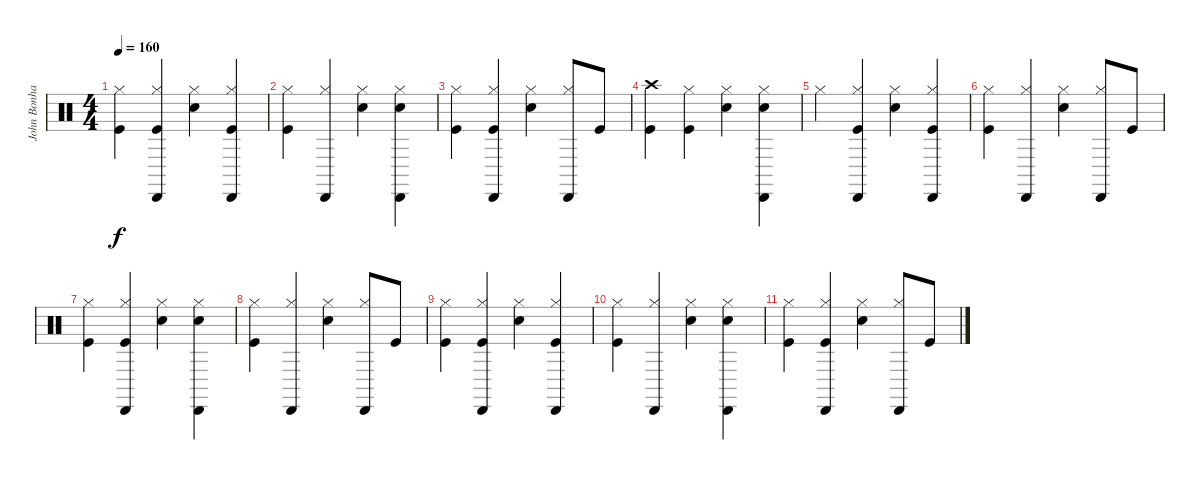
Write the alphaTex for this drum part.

\track ("John Bonham - Drums" "John Bonha") {instrument percussion}
\staff {score}
\articulation defaults
\ts (4 4)
\tempo 160
\clef neutral
\ks c
("Hi-Hat (closed)" "Kick (hit)").4{dy f} ("Hi-Hat (closed)" "Kick (hit)" "Cabasa (hit)").4 ("Hi-Hat (closed)" "Snare (hit) 2").4 ("Hi-Hat (closed)" "Kick (hit)" "Cabasa (hit)").4 |
("Hi-Hat (closed)" "Kick (hit)").4 ("Hi-Hat (closed)" "Cabasa (hit)").4 ("Snare (hit) 2" "Hi-Hat (closed)").4 ("Snare (hit) 2" "Hi-Hat (closed)" "Cabasa (hit)").4 |
("Hi-Hat (closed)" "Kick (hit)").4 ("Hi-Hat (closed)" "Kick (hit)" "Cabasa (hit)").4 ("Hi-Hat (closed)" "Snare (hit) 2").4 ("Hi-Hat (closed)" "Cabasa (hit)").8 "Kick (hit)".8 |
("Kick (hit)" "Crash high (hit)").4 ("Hi-Hat (closed)" "Kick (hit)").4 ("Hi-Hat (closed)" "Snare (hit) 2").4 ("Snare (hit) 2" "Hi-Hat (closed)" "Cabasa (hit)").4 |
"Hi-Hat (closed)".4 ("Kick (hit)" "Cabasa (hit)" "Hi-Hat (closed)").4 ("Snare (hit) 2" "Hi-Hat (closed)").4 ("Kick (hit)" "Cabasa (hit)" "Hi-Hat (closed)").4 |
("Kick (hit)" "Hi-Hat (closed)").4 ("Hi-Hat (closed)" "Cabasa (hit)").4 ("Snare (hit) 2" "Hi-Hat (closed)").4 ("Hi-Hat (closed)" "Cabasa (hit)").8 "Kick (hit)".8 |
("Hi-Hat (closed)" "Kick (hit)").4 ("Hi-Hat (closed)" "Kick (hit)" "Cabasa (hit)").4 ("Hi-Hat (closed)" "Snare (hit) 2").4 ("Hi-Hat (closed)" "Snare (hit) 2" "Cabasa (hit)").4 |
("Hi-Hat (closed)" "Kick (hit)").4 ("Hi-Hat (closed)" "Cabasa (hit)").4 ("Snare (hit) 2" "Hi-Hat (closed)").4 ("Hi-Hat (closed)" "Cabasa (hit)").8 "Kick (hit)".8 |
("Hi-Hat (closed)" "Kick (hit)").4 ("Hi-Hat (closed)" "Kick (hit)" "Cabasa (hit)").4 ("Hi-Hat (closed)" "Snare (hit) 2").4 ("Hi-Hat (closed)" "Kick (hit)" "Cabasa (hit)").4 |
("Hi-Hat (closed)" "Kick (hit)").4 ("Hi-Hat (closed)" "Cabasa (hit)").4 ("Snare (hit) 2" "Hi-Hat (closed)").4 ("Snare (hit) 2" "Hi-Hat (closed)" "Cabasa (hit)").4 |
("Hi-Hat (closed)" "Kick (hit)").4 ("Hi-Hat (closed)" "Kick (hit)" "Cabasa (hit)").4 ("Hi-Hat (closed)" "Snare (hit) 2").4 ("Hi-Hat (closed)" "Cabasa (hit)").8 "Kick (hit)".8
